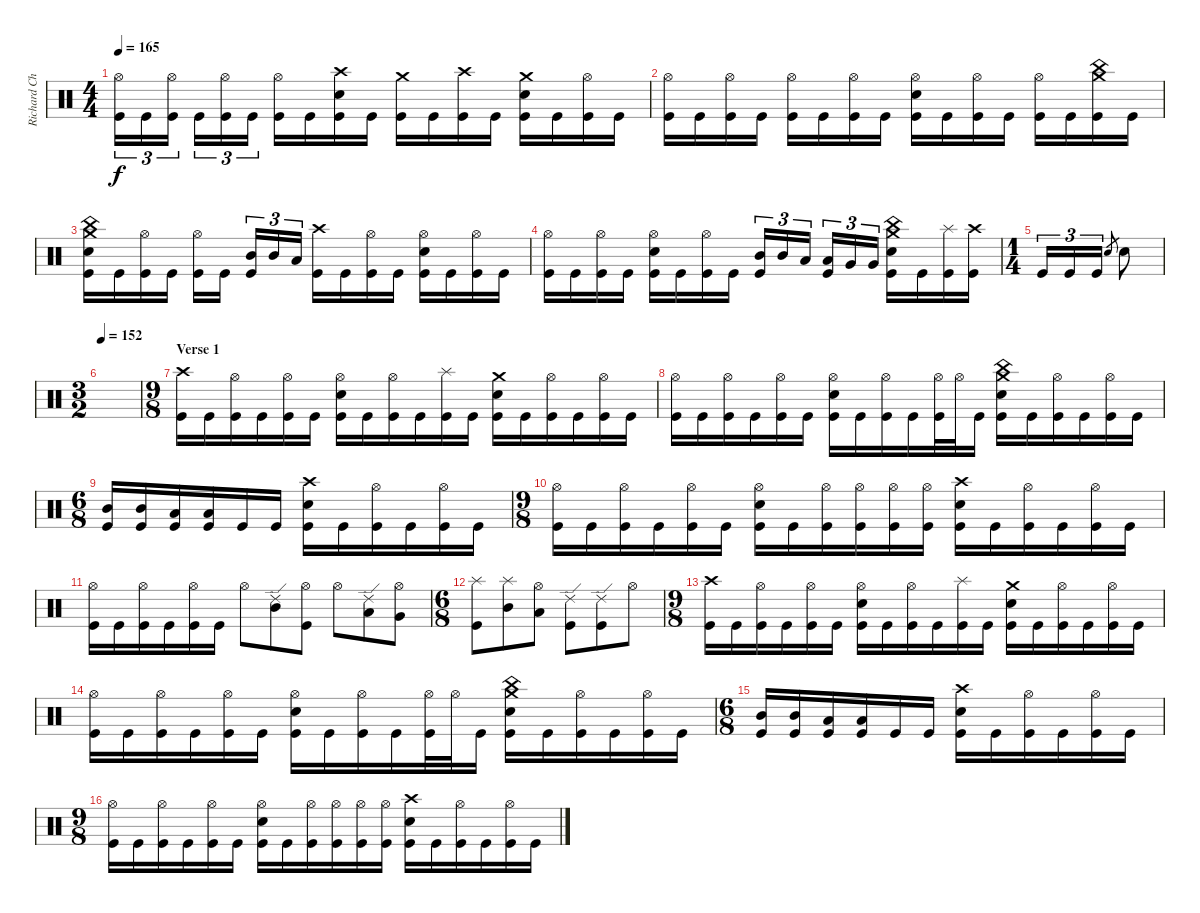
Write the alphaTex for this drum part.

\track ("Richard Christy " "Richard Ch") {instrument percussion}
\staff {score}
\articulation defaults
\ts (4 4)
\tempo 165
\tempo 170
\tempo 165
\clef neutral
\ks c
("Hi-Hat (open)" "Kick (hit)").16{tu (3 2) dy f} "Kick (hit)".16{tu (3 2)} ("Hi-Hat (open)" "Kick (hit)").16{tu (3 2)} "Kick (hit)".16{tu (3 2)} ("Hi-Hat (open)" "Kick (hit)").16{tu (3 2)} "Kick (hit)".16{tu (3 2)} ("Hi-Hat (open)" "Kick (hit)").16 "Kick (hit)".16 ("Crash high (hit)" "Electric Snare (hit)" "Kick (hit)").16 "Kick (hit)".16 ("Crash medium (hit)" "Kick (hit)").16 "Kick (hit)".16 ("Crash high (hit)" "Kick (hit)").16 "Kick (hit)".16 ("Crash medium (hit)" "Electric Snare (hit)" "Kick (hit)").16 "Kick (hit)".16 ("Hi-Hat (open)" "Kick (hit)").16 "Kick (hit)".16 |
("Hi-Hat (open)" "Kick (hit)").16 "Kick (hit)".16 ("Hi-Hat (open)" "Kick (hit)").16 "Kick (hit)".16 ("Hi-Hat (open)" "Kick (hit)").16 "Kick (hit)".16 ("Hi-Hat (open)" "Kick (hit)").16 "Kick (hit)".16 ("Hi-Hat (open)" "Electric Snare (hit)" "Kick (hit)").16 "Kick (hit)".16 ("Hi-Hat (open)" "Kick (hit)").16 "Kick (hit)".16 ("Hi-Hat (open)" "Kick (hit)").16 "Kick (hit)".16 ("Crash medium (hit)" "China (hit)" "Kick (hit)").16 "Kick (hit)".16 |
("Crash medium (hit)" "China (hit)" "Electric Snare (hit)" "Kick (hit)").16 "Kick (hit)".16 ("Hi-Hat (open)" "Kick (hit)").16 "Kick (hit)".16 ("Hi-Hat (open)" "Kick (hit)").16 "Kick (hit)".16 ("Mid Tom (hit)" "Kick (hit)").16{tu (3 2)} "Mid Tom (hit)".16{tu (3 2)} "Low Tom (hit)".16{tu (3 2)} ("Crash high (hit)" "Kick (hit)").16 "Kick (hit)".16 ("Hi-Hat (open)" "Kick (hit)").16 "Kick (hit)".16 ("Hi-Hat (open)" "Electric Snare (hit)" "Kick (hit)").16 "Kick (hit)".16 ("Hi-Hat (open)" "Kick (hit)").16 "Kick (hit)".16 |
("Hi-Hat (open)" "Kick (hit)").16 "Kick (hit)".16 ("Hi-Hat (open)" "Kick (hit)").16 "Kick (hit)".16 ("Hi-Hat (open)" "Electric Snare (hit)" "Kick (hit)").16 "Kick (hit)".16 ("Hi-Hat (open)" "Kick (hit)").16 "Kick (hit)".16 ("Mid Tom (hit)" "Kick (hit)").16{tu (3 2)} "Mid Tom (hit)".16{tu (3 2)} "Low Tom (hit)".16{tu (3 2)} ("Low Tom (hit)" "Kick (hit)").16{tu (3 2)} "Very Low Tom (hit)".16{tu (3 2)} "Very Low Tom (hit)".16{tu (3 2)} ("Crash medium (hit)" "China (hit)" "Electric Snare (hit)" "Kick (hit)").16 "Kick (hit)".16 ("Splash (hit)" "Kick (hit)").16 ("Crash high (hit)" "Kick (hit)").16 |
\ts (1 4)
"Kick (hit)".16{tu (3 2)} "Kick (hit)".16{tu (3 2)} "Kick (hit)".16{tu (3 2)} "Electric Snare (hit)".8{gr} "Electric Snare (hit)".8 |
\ts (3 2)
\tempo 152
|
\ts (9 8)
\section ("" "Verse 1")
("Crash high (hit)" "Kick (hit)").16 "Kick (hit)".16 ("Hi-Hat (open)" "Kick (hit)").16 "Kick (hit)".16 ("Hi-Hat (open)" "Kick (hit)").16 "Kick (hit)".16 ("Hi-Hat (open)" "Electric Snare (hit)" "Kick (hit)").16 "Kick (hit)".16 ("Hi-Hat (open)" "Kick (hit)").16 "Kick (hit)".16 ("Splash (hit)" "Kick (hit)").16 "Kick (hit)".16 ("Crash medium (hit)" "Electric Snare (hit)" "Kick (hit)").16 "Kick (hit)".16 ("Hi-Hat (open)" "Kick (hit)").16 "Kick (hit)".16 ("Hi-Hat (open)" "Kick (hit)").16 "Kick (hit)".16 |
("Hi-Hat (open)" "Kick (hit)").16 "Kick (hit)".16 ("Hi-Hat (open)" "Kick (hit)").16 "Kick (hit)".16 ("Hi-Hat (open)" "Kick (hit)").16 "Kick (hit)".16 ("Hi-Hat (open)" "Electric Snare (hit)" "Kick (hit)").16 "Kick (hit)".16 ("Hi-Hat (open)" "Kick (hit)").16 "Kick (hit)".16 ("Hi-Hat (open)" "Kick (hit)").32 "Hi-Hat (open)".32 "Kick (hit)".16 ("Crash medium (hit)" "China (hit)" "Electric Snare (hit)" "Kick (hit)").16 "Kick (hit)".16 ("Hi-Hat (open)" "Kick (hit)").16 "Kick (hit)".16 ("Hi-Hat (open)" "Kick (hit)").16 "Kick (hit)".16 |
\ts (6 8)
("Mid Tom (hit)" "Kick (hit)").16 ("Mid Tom (hit)" "Kick (hit)").16 ("Low Tom (hit)" "Kick (hit)").16 ("Low Tom (hit)" "Kick (hit)").16 "Kick (hit)".16 "Kick (hit)".16 ("Crash high (hit)" "Electric Snare (hit)" "Kick (hit)").16 "Kick (hit)".16 ("Hi-Hat (open)" "Kick (hit)").16 "Kick (hit)".16 ("Hi-Hat (open)" "Kick (hit)").16 "Kick (hit)".16 |
\ts (9 8)
("Hi-Hat (open)" "Kick (hit)").16 "Kick (hit)".16 ("Hi-Hat (open)" "Kick (hit)").16 "Kick (hit)".16 ("Hi-Hat (open)" "Kick (hit)").16 "Kick (hit)".16 ("Hi-Hat (open)" "Electric Snare (hit)" "Kick (hit)").16 "Kick (hit)".16 ("Hi-Hat (open)" "Kick (hit)").16 ("Hi-Hat (open)" "Kick (hit)").16 ("Hi-Hat (open)" "Kick (hit)").16 ("Hi-Hat (open)" "Kick (hit)").16 ("Crash high (hit)" "Electric Snare (hit)" "Kick (hit)").16 "Kick (hit)".16 ("Hi-Hat (open)" "Kick (hit)").16 "Kick (hit)".16 ("Hi-Hat (open)" "Kick (hit)").16 "Kick (hit)".16 |
("Hi-Hat (open)" "Kick (hit)").16 "Kick (hit)".16 ("Hi-Hat (open)" "Kick (hit)").16 "Kick (hit)".16 ("Hi-Hat (open)" "Kick (hit)").16 "Kick (hit)".16 "Hi-Hat (open)".8 ("Ride (edge) 2" "Mid Tom (hit)").8 ("Hi-Hat (open)" "Kick (hit)").8 "Hi-Hat (open)".8 ("Ride (edge) 2" "Low Tom (hit)").8 ("Hi-Hat (open)" "Very Low Tom (hit)").8 |
\ts (6 8)
("Splash (hit)" "Kick (hit)").8 ("Splash (hit)" "Mid Tom (hit)").8 ("Hi-Hat (open)" "Low Tom (hit)").8 ("Ride (edge) 2" "Kick (hit)").8 ("Ride (edge) 2" "Kick (hit)").8 "Hi-Hat (open)".8 |
\ts (9 8)
("Crash high (hit)" "Kick (hit)").16 "Kick (hit)".16 ("Hi-Hat (open)" "Kick (hit)").16 "Kick (hit)".16 ("Hi-Hat (open)" "Kick (hit)").16 "Kick (hit)".16 ("Hi-Hat (open)" "Electric Snare (hit)" "Kick (hit)").16 "Kick (hit)".16 ("Hi-Hat (open)" "Kick (hit)").16 "Kick (hit)".16 ("Splash (hit)" "Kick (hit)").16 "Kick (hit)".16 ("Crash medium (hit)" "Electric Snare (hit)" "Kick (hit)").16 "Kick (hit)".16 ("Hi-Hat (open)" "Kick (hit)").16 "Kick (hit)".16 ("Hi-Hat (open)" "Kick (hit)").16 "Kick (hit)".16 |
("Hi-Hat (open)" "Kick (hit)").16 "Kick (hit)".16 ("Hi-Hat (open)" "Kick (hit)").16 "Kick (hit)".16 ("Hi-Hat (open)" "Kick (hit)").16 "Kick (hit)".16 ("Hi-Hat (open)" "Electric Snare (hit)" "Kick (hit)").16 "Kick (hit)".16 ("Hi-Hat (open)" "Kick (hit)").16 "Kick (hit)".16 ("Hi-Hat (open)" "Kick (hit)").32 "Hi-Hat (open)".32 "Kick (hit)".16 ("Crash medium (hit)" "China (hit)" "Electric Snare (hit)" "Kick (hit)").16 "Kick (hit)".16 ("Hi-Hat (open)" "Kick (hit)").16 "Kick (hit)".16 ("Hi-Hat (open)" "Kick (hit)").16 "Kick (hit)".16 |
\ts (6 8)
("Mid Tom (hit)" "Kick (hit)").16 ("Mid Tom (hit)" "Kick (hit)").16 ("Low Tom (hit)" "Kick (hit)").16 ("Low Tom (hit)" "Kick (hit)").16 "Kick (hit)".16 "Kick (hit)".16 ("Crash high (hit)" "Electric Snare (hit)" "Kick (hit)").16 "Kick (hit)".16 ("Hi-Hat (open)" "Kick (hit)").16 "Kick (hit)".16 ("Hi-Hat (open)" "Kick (hit)").16 "Kick (hit)".16 |
\ts (9 8)
("Hi-Hat (open)" "Kick (hit)").16 "Kick (hit)".16 ("Hi-Hat (open)" "Kick (hit)").16 "Kick (hit)".16 ("Hi-Hat (open)" "Kick (hit)").16 "Kick (hit)".16 ("Hi-Hat (open)" "Electric Snare (hit)" "Kick (hit)").16 "Kick (hit)".16 ("Hi-Hat (open)" "Kick (hit)").16 ("Hi-Hat (open)" "Kick (hit)").16 ("Hi-Hat (open)" "Kick (hit)").16 ("Hi-Hat (open)" "Kick (hit)").16 ("Crash high (hit)" "Electric Snare (hit)" "Kick (hit)").16 "Kick (hit)".16 ("Hi-Hat (open)" "Kick (hit)").16 "Kick (hit)".16 ("Hi-Hat (open)" "Kick (hit)").16 "Kick (hit)".16
